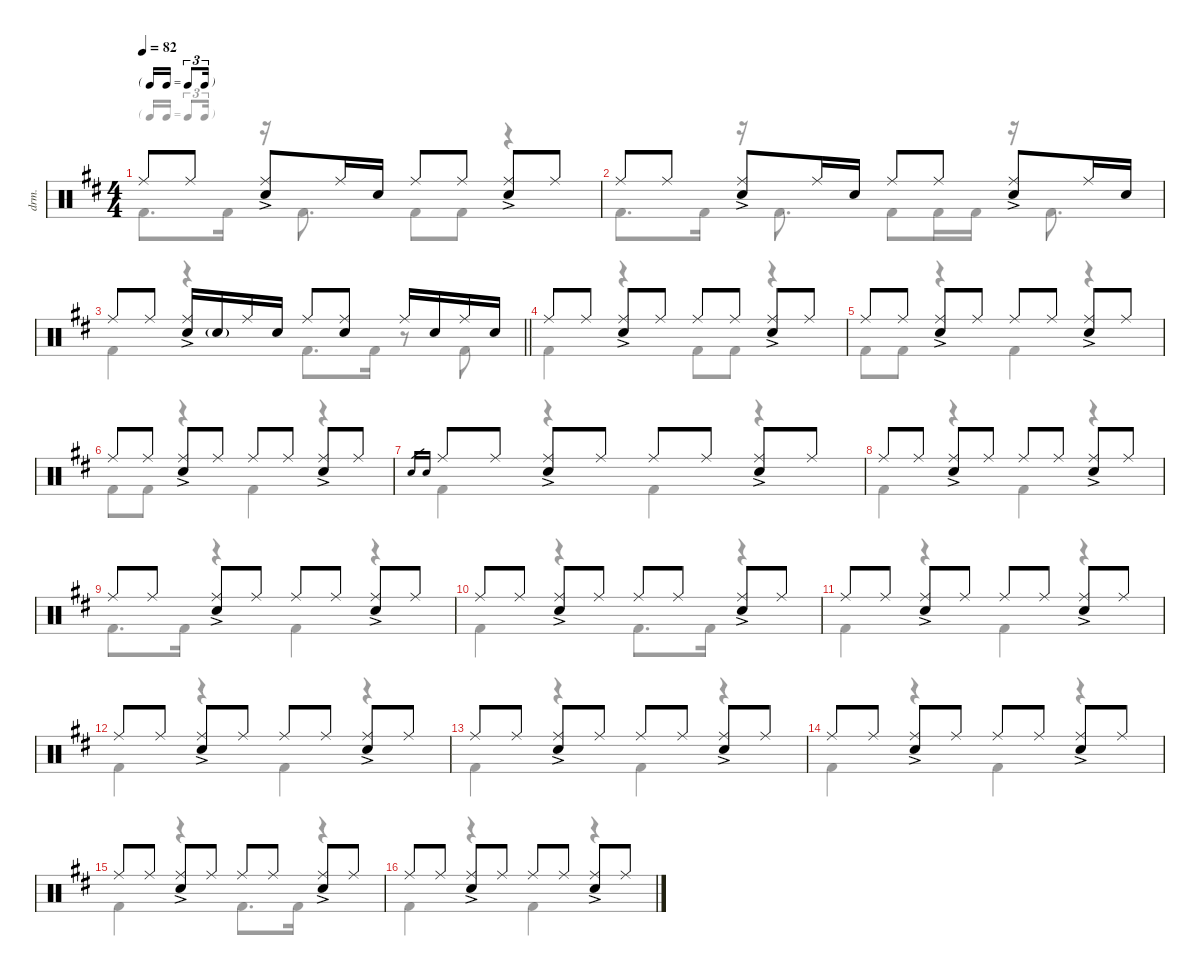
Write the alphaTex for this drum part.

\defaultSystemsLayout 4
\hideDynamics
\bracketExtendMode nobrackets
\otherSystemsTrackNameOrientation horizontal
\track ("Buddy" "drm.") {instrument percussion}
\staff {score}
\articulation defaults
\voice
\ts (4 4)
\tf triplet16th
\tempo 82
\clef neutral
\ks d "Ride (middle)"{acc forcenatural}.8{dy f beam Up} "Ride (middle)"{acc forcenatural}.8{beam Up}
("Ride (middle)"{ac acc forcenatural} "Snare (hit) 2"{ac acc forcenatural}).8{beam Up} "Ride (middle)"{acc forcenatural}.16{beam Up} "Snare (hit) 2"{acc forcenatural}.16{beam Up} "Ride (middle)"{acc forcenatural}.8{beam Up} "Ride (middle)"{acc forcenatural}.8{beam Up} ("Ride (middle)"{ac acc forcenatural} "Snare (hit) 2"{ac acc forcenatural}).8{beam Up} "Ride (middle)"{acc forcenatural}.8{beam Up} |
"Ride (middle)"{acc forcenatural}.8{beam Up} "Ride (middle)"{acc forcenatural}.8{beam Up} ("Ride (middle)"{ac acc forcenatural} "Snare (hit) 2"{ac acc forcenatural}).8{beam Up} "Ride (middle)"{acc forcenatural}.16{beam Up} "Snare (hit) 2"{acc forcenatural}.16{beam Up} "Ride (middle)"{acc forcenatural}.8{beam Up} "Ride (middle)"{acc forcenatural}.8{beam Up} ("Ride (middle)"{ac acc forcenatural} "Snare (hit) 2"{ac acc forcenatural}).8{beam Up} "Ride (middle)"{acc forcenatural}.16{beam Up} "Snare (hit) 2"{acc forcenatural}.16{beam Up} |
\barLineRight lightlight "Ride (middle)"{acc forcenatural}.8{beam Up} "Ride (middle)"{acc forcenatural}.8{beam Up}
("Ride (middle)"{ac acc forcenatural} "Snare (hit) 2"{ac acc forcenatural}).16{beam Up} "Snare (hit) 2"{g acc forcenatural}.16{dy mf beam Up} "Ride (middle)"{acc forcenatural}.16{dy f beam Up} "Snare (hit) 2"{acc forcenatural}.16{beam Up} "Ride (middle)"{acc forcenatural}.8{beam Up} ("Ride (middle)"{acc forcenatural} "Snare (hit) 2"{acc forcenatural}).8{beam Up} "Ride (middle)"{acc forcenatural}.16{beam Up} "Snare (hit) 2"{acc forcenatural}.16{beam Up} "Ride (middle)"{acc forcenatural}.16{beam Up} "Snare (hit) 2"{acc forcenatural}.16{beam Up} |
"Ride (middle)"{acc forcenatural}.8{beam Up} "Ride (middle)"{acc forcenatural}.8{beam Up} ("Ride (middle)"{ac acc forcenatural} "Snare (hit) 2"{ac acc forcenatural}).8{beam Up} "Ride (middle)"{acc forcenatural}.8{beam Up} "Ride (middle)"{acc forcenatural}.8{beam Up} "Ride (middle)"{acc forcenatural}.8{beam Up} ("Ride (middle)"{ac acc forcenatural} "Snare (hit) 2"{ac acc forcenatural}).8{beam Up} "Ride (middle)"{acc forcenatural}.8{beam Up} |
"Ride (middle)"{acc forcenatural}.8{beam Up} "Ride (middle)"{acc forcenatural}.8{beam Up} ("Ride (middle)"{ac acc forcenatural} "Snare (hit) 2"{ac acc forcenatural}).8{beam Up} "Ride (middle)"{acc forcenatural}.8{beam Up} "Ride (middle)"{acc forcenatural}.8{beam Up} "Ride (middle)"{acc forcenatural}.8{beam Up} ("Ride (middle)"{ac acc forcenatural} "Snare (hit) 2"{ac acc forcenatural}).8{beam Up} "Ride (middle)"{acc forcenatural}.8{beam Up} |
"Ride (middle)"{acc forcenatural}.8{beam Up} "Ride (middle)"{acc forcenatural}.8{beam Up} ("Ride (middle)"{ac acc forcenatural} "Snare (hit) 2"{ac acc forcenatural}).8{beam Up} "Ride (middle)"{acc forcenatural}.8{beam Up} "Ride (middle)"{acc forcenatural}.8{beam Up} "Ride (middle)"{acc forcenatural}.8{beam Up} ("Ride (middle)"{ac acc forcenatural} "Snare (hit) 2"{ac acc forcenatural}).8{beam Up} "Ride (middle)"{acc forcenatural}.8{beam Up} |
"Snare (hit) 2"{acc forcenatural}.16{gr dy ppp beam Up} "Snare (hit) 2"{acc forcenatural}.16{gr beam Up} "Ride (middle)"{acc forcenatural}.8{dy f beam Up} "Ride (middle)"{acc forcenatural}.8{beam Up} ("Ride (middle)"{ac acc forcenatural} "Snare (hit) 2"{ac acc forcenatural}).8{beam Up} "Ride (middle)"{acc forcenatural}.8{beam Up} "Ride (middle)"{acc forcenatural}.8{beam Up} "Ride (middle)"{acc forcenatural}.8{beam Up} ("Ride (middle)"{acc forcenatural} "Snare (hit) 2"{ac acc forcenatural}).8{beam Up} "Ride (middle)"{acc forcenatural}.8{beam Up} |
"Ride (middle)"{acc forcenatural}.8{beam Up} "Ride (middle)"{acc forcenatural}.8{beam Up} ("Ride (middle)"{ac acc forcenatural} "Snare (hit) 2"{ac acc forcenatural}).8{beam Up} "Ride (middle)"{acc forcenatural}.8{beam Up} "Ride (middle)"{acc forcenatural}.8{beam Up} "Ride (middle)"{acc forcenatural}.8{beam Up} ("Ride (middle)"{ac acc forcenatural} "Snare (hit) 2"{ac acc forcenatural}).8{beam Up} "Ride (middle)"{acc forcenatural}.8{beam Up} |
"Ride (middle)"{acc forcenatural}.8{beam Up} "Ride (middle)"{acc forcenatural}.8{beam Up} ("Ride (middle)"{acc forcenatural} "Snare (hit) 2"{ac acc forcenatural}).8{beam Up} "Ride (middle)"{acc forcenatural}.8{beam Up} "Ride (middle)"{acc forcenatural}.8{beam Up} "Ride (middle)"{acc forcenatural}.8{beam Up} ("Ride (middle)"{ac acc forcenatural} "Snare (hit) 2"{ac acc forcenatural}).8{beam Up} "Ride (middle)"{acc forcenatural}.8{beam Up} |
"Ride (middle)"{acc forcenatural}.8{beam Up} "Ride (middle)"{acc forcenatural}.8{beam Up} ("Ride (middle)"{ac acc forcenatural} "Snare (hit) 2"{ac acc forcenatural}).8{beam Up} "Ride (middle)"{acc forcenatural}.8{beam Up} "Ride (middle)"{acc forcenatural}.8{beam Up} "Ride (middle)"{acc forcenatural}.8{beam Up} ("Ride (middle)"{ac acc forcenatural} "Snare (hit) 2"{ac acc forcenatural}).8{beam Up} "Ride (middle)"{acc forcenatural}.8{beam Up} |
"Ride (middle)"{acc forcenatural}.8{beam Up} "Ride (middle)"{acc forcenatural}.8{beam Up} ("Ride (middle)"{ac acc forcenatural} "Snare (hit) 2"{ac acc forcenatural}).8{beam Up} "Ride (middle)"{acc forcenatural}.8{beam Up} "Ride (middle)"{acc forcenatural}.8{beam Up} "Ride (middle)"{acc forcenatural}.8{beam Up} ("Ride (middle)"{ac acc forcenatural} "Snare (hit) 2"{ac acc forcenatural}).8{beam Up} "Ride (middle)"{acc forcenatural}.8{beam Up} |
"Ride (middle)"{acc forcenatural}.8{beam Up} "Ride (middle)"{acc forcenatural}.8{beam Up} ("Ride (middle)"{ac acc forcenatural} "Snare (hit) 2"{ac acc forcenatural}).8{beam Up} "Ride (middle)"{acc forcenatural}.8{beam Up} "Ride (middle)"{acc forcenatural}.8{beam Up} "Ride (middle)"{acc forcenatural}.8{beam Up} ("Ride (middle)"{ac acc forcenatural} "Snare (hit) 2"{ac acc forcenatural}).8{beam Up} "Ride (middle)"{acc forcenatural}.8{beam Up} |
"Ride (middle)"{acc forcenatural}.8{beam Up} "Ride (middle)"{acc forcenatural}.8{beam Up} ("Ride (middle)"{ac acc forcenatural} "Snare (hit) 2"{ac acc forcenatural}).8{beam Up} "Ride (middle)"{acc forcenatural}.8{beam Up} "Ride (middle)"{acc forcenatural}.8{beam Up} "Ride (middle)"{acc forcenatural}.8{beam Up} ("Ride (middle)"{ac acc forcenatural} "Snare (hit) 2"{ac acc forcenatural}).8{beam Up} "Ride (middle)"{acc forcenatural}.8{beam Up} |
"Ride (middle)"{acc forcenatural}.8{beam Up} "Ride (middle)"{acc forcenatural}.8{beam Up} ("Ride (middle)"{ac acc forcenatural} "Snare (hit) 2"{ac acc forcenatural}).8{beam Up} "Ride (middle)"{acc forcenatural}.8{beam Up} "Ride (middle)"{acc forcenatural}.8{beam Up} "Ride (middle)"{acc forcenatural}.8{beam Up} ("Ride (middle)"{ac acc forcenatural} "Snare (hit) 2"{ac acc forcenatural}).8{beam Up} "Ride (middle)"{acc forcenatural}.8{beam Up} |
"Ride (middle)"{acc forcenatural}.8{beam Up} "Ride (middle)"{acc forcenatural}.8{beam Up} ("Ride (middle)"{ac acc forcenatural} "Snare (hit) 2"{ac acc forcenatural}).8{beam Up} "Ride (middle)"{acc forcenatural}.8{beam Up} "Ride (middle)"{acc forcenatural}.8{beam Up} "Ride (middle)"{acc forcenatural}.8{beam Up} ("Ride (middle)"{ac acc forcenatural} "Snare (hit) 2"{ac acc forcenatural}).8{beam Up} "Ride (middle)"{acc forcenatural}.8{beam Up} |
"Ride (middle)"{acc forcenatural}.8{beam Up} "Ride (middle)"{acc forcenatural}.8{beam Up} ("Ride (middle)"{ac acc forcenatural} "Snare (hit) 2"{ac acc forcenatural}).8{beam Up} "Ride (middle)"{acc forcenatural}.8{beam Up} "Ride (middle)"{acc forcenatural}.8{beam Up} "Ride (middle)"{acc forcenatural}.8{beam Up} ("Ride (middle)"{ac acc forcenatural} "Snare (hit) 2"{ac acc forcenatural}).8{beam Up} "Ride (middle)"{acc forcenatural}.8{beam Up}
\voice
\clef neutral
\ottava regular
\simile none
\ks d "Kick (hit) 2"{acc forcenatural}.8{d dy f beam Down} "Kick (hit) 2"{acc forcenatural}.16{beam Down}
r.16{beam Down} "Kick (hit) 2"{acc forcenatural}.8{d beam Down} "Kick (hit) 2"{acc forcenatural}.8{beam Down} "Kick (hit) 2"{acc forcenatural}.8{beam Down} r.4{beam Down} |
"Kick (hit) 2"{acc forcenatural}.8{d beam Down} "Kick (hit) 2"{acc forcenatural}.16{beam Down} r.16{beam Down} "Kick (hit) 2"{acc forcenatural}.8{d beam Down} "Kick (hit) 2"{acc forcenatural}.8{beam Down} "Kick (hit) 2"{acc forcenatural}.16{beam Down} "Kick (hit) 2"{acc forcenatural}.16{beam Down} r.16{beam Down} "Kick (hit) 2"{acc forcenatural}.8{d beam Down} |
\barLineRight lightlight "Kick (hit) 2"{acc forcenatural}.4{beam Down}
r.4{beam Down} "Kick (hit) 2"{acc forcenatural}.8{d beam Down} "Kick (hit) 2"{acc forcenatural}.16{beam Down} r.8{beam Down} "Kick (hit) 2"{acc forcenatural}.8{beam Down} |
"Kick (hit) 2"{acc forcenatural}.4{beam Down} r.4{beam Down} "Kick (hit) 2"{acc forcenatural}.8{beam Down} "Kick (hit) 2"{acc forcenatural}.8{beam Down} r.4{beam Down} |
"Kick (hit) 2"{acc forcenatural}.8{beam Down} "Kick (hit) 2"{acc forcenatural}.8{beam Down} r.4{beam Down} "Kick (hit) 2"{acc forcenatural}.4{beam Down} r.4{beam Down} |
"Kick (hit) 2"{acc forcenatural}.8{beam Down} "Kick (hit) 2"{acc forcenatural}.8{beam Down} r.4{beam Down} "Kick (hit) 2"{acc forcenatural}.4{beam Down} r.4{beam Down} |
"Kick (hit) 2"{acc forcenatural}.4{beam Down} r.4{beam Down} "Kick (hit) 2"{acc forcenatural}.4{beam Down} r.4{beam Down} |
"Kick (hit) 2"{acc forcenatural}.4{beam Down} r.4{beam Down} "Kick (hit) 2"{acc forcenatural}.4{beam Down} r.4{beam Down} |
"Kick (hit) 2"{acc forcenatural}.8{d beam Down} "Kick (hit) 2"{acc forcenatural}.16{beam Down} r.4{beam Down} "Kick (hit) 2"{acc forcenatural}.4{beam Down} r.4{beam Down} |
"Kick (hit) 2"{acc forcenatural}.4{beam Down} r.4{beam Down} "Kick (hit) 2"{acc forcenatural}.8{d beam Down} "Kick (hit) 2"{acc forcenatural}.16{beam Down} r.4{beam Down} |
"Kick (hit) 2"{acc forcenatural}.4{beam Down} r.4{beam Down} "Kick (hit) 2"{acc forcenatural}.4{beam Down} r.4{beam Down} |
"Kick (hit) 2"{acc forcenatural}.4{beam Down} r.4{beam Down} "Kick (hit) 2"{acc forcenatural}.4{beam Down} r.4{beam Down} |
"Kick (hit) 2"{acc forcenatural}.4{beam Down} r.4{beam Down} "Kick (hit) 2"{acc forcenatural}.4{beam Down} r.4{beam Down} |
"Kick (hit) 2"{acc forcenatural}.4{beam Down} r.4{beam Down} "Kick (hit) 2"{acc forcenatural}.4{beam Down} r.4{beam Down} |
"Kick (hit) 2"{acc forcenatural}.4{beam Down} r.4{beam Down} "Kick (hit) 2"{acc forcenatural}.8{d beam Down} "Kick (hit) 2"{acc forcenatural}.16{beam Down} r.4{beam Down} |
"Kick (hit) 2"{acc forcenatural}.4{beam Down} r.4{beam Down} "Kick (hit) 2"{acc forcenatural}.4{beam Down} r.4{beam Down}
